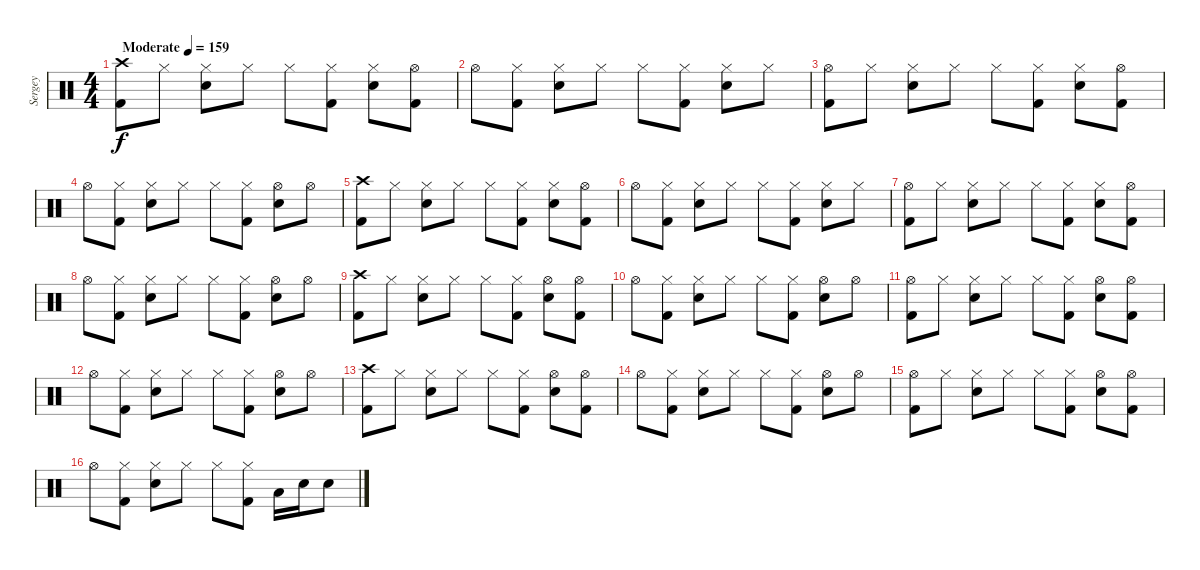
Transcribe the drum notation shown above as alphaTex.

\track ("Sergey" "Sergey") {instrument percussion}
\staff {score}
\articulation defaults
\ts (4 4)
\tempo (159 "Moderate")
\clef neutral
\ks c
("Crash high (hit)" "Kick (hit) 2").8{dy f} "Hi-Hat (closed)".8 ("Hi-Hat (closed)" "Electric Snare (hit)").8 "Hi-Hat (closed)".8 "Hi-Hat (closed)".8 ("Hi-Hat (closed)" "Kick (hit) 2").8 ("Hi-Hat (closed)" "Electric Snare (hit)").8 ("Hi-Hat (open)" "Kick (hit) 2").8 |
"Hi-Hat (open)".8 ("Hi-Hat (closed)" "Kick (hit) 2").8 ("Hi-Hat (closed)" "Electric Snare (hit)").8 "Hi-Hat (closed)".8 "Hi-Hat (closed)".8 ("Hi-Hat (closed)" "Kick (hit) 2").8 ("Hi-Hat (closed)" "Electric Snare (hit)").8 "Hi-Hat (closed)".8 |
("Hi-Hat (open)" "Kick (hit) 2").8 "Hi-Hat (closed)".8 ("Hi-Hat (closed)" "Electric Snare (hit)").8 "Hi-Hat (closed)".8 "Hi-Hat (closed)".8 ("Hi-Hat (closed)" "Kick (hit) 2").8 ("Hi-Hat (closed)" "Electric Snare (hit)").8 ("Hi-Hat (open)" "Kick (hit) 2").8 |
"Hi-Hat (open)".8 ("Hi-Hat (closed)" "Kick (hit) 2").8 ("Hi-Hat (closed)" "Electric Snare (hit)").8 "Hi-Hat (closed)".8 "Hi-Hat (closed)".8 ("Hi-Hat (closed)" "Kick (hit) 2").8 ("Hi-Hat (open)" "Electric Snare (hit)").8 "Hi-Hat (open)".8 |
("Crash high (hit)" "Kick (hit) 2").8 "Hi-Hat (closed)".8 ("Hi-Hat (closed)" "Electric Snare (hit)").8 "Hi-Hat (closed)".8 "Hi-Hat (closed)".8 ("Hi-Hat (closed)" "Kick (hit) 2").8 ("Hi-Hat (closed)" "Electric Snare (hit)").8 ("Hi-Hat (open)" "Kick (hit) 2").8 |
"Hi-Hat (open)".8 ("Hi-Hat (closed)" "Kick (hit) 2").8 ("Hi-Hat (closed)" "Electric Snare (hit)").8 "Hi-Hat (closed)".8 "Hi-Hat (closed)".8 ("Hi-Hat (closed)" "Kick (hit) 2").8 ("Hi-Hat (closed)" "Electric Snare (hit)").8 "Hi-Hat (closed)".8 |
("Hi-Hat (open)" "Kick (hit) 2").8 "Hi-Hat (closed)".8 ("Hi-Hat (closed)" "Electric Snare (hit)").8 "Hi-Hat (closed)".8 "Hi-Hat (closed)".8 ("Hi-Hat (closed)" "Kick (hit) 2").8 ("Hi-Hat (closed)" "Electric Snare (hit)").8 ("Hi-Hat (open)" "Kick (hit) 2").8 |
"Hi-Hat (open)".8 ("Hi-Hat (closed)" "Kick (hit) 2").8 ("Hi-Hat (closed)" "Electric Snare (hit)").8 "Hi-Hat (closed)".8 "Hi-Hat (closed)".8 ("Hi-Hat (closed)" "Kick (hit) 2").8 ("Hi-Hat (open)" "Electric Snare (hit)").8 "Hi-Hat (open)".8 |
("Crash high (hit)" "Kick (hit) 2").8 "Hi-Hat (closed)".8 ("Hi-Hat (closed)" "Electric Snare (hit)").8 "Hi-Hat (closed)".8 "Hi-Hat (closed)".8 ("Hi-Hat (closed)" "Kick (hit) 2").8 ("Hi-Hat (open)" "Electric Snare (hit)").8 ("Hi-Hat (open)" "Kick (hit) 2").8 |
"Hi-Hat (open)".8 ("Hi-Hat (closed)" "Kick (hit) 2").8 ("Hi-Hat (closed)" "Electric Snare (hit)").8 "Hi-Hat (closed)".8 "Hi-Hat (closed)".8 ("Hi-Hat (closed)" "Kick (hit) 2").8 ("Hi-Hat (open)" "Electric Snare (hit)").8 "Hi-Hat (open)".8 |
("Hi-Hat (open)" "Kick (hit) 2").8 "Hi-Hat (closed)".8 ("Hi-Hat (closed)" "Electric Snare (hit)").8 "Hi-Hat (closed)".8 "Hi-Hat (closed)".8 ("Hi-Hat (closed)" "Kick (hit) 2").8 ("Hi-Hat (open)" "Electric Snare (hit)").8 ("Hi-Hat (open)" "Kick (hit) 2").8 |
"Hi-Hat (open)".8 ("Hi-Hat (closed)" "Kick (hit) 2").8 ("Hi-Hat (closed)" "Electric Snare (hit)").8 "Hi-Hat (closed)".8 "Hi-Hat (closed)".8 ("Hi-Hat (closed)" "Kick (hit) 2").8 ("Hi-Hat (open)" "Electric Snare (hit)").8 "Hi-Hat (open)".8 |
("Crash high (hit)" "Kick (hit) 2").8 "Hi-Hat (closed)".8 ("Hi-Hat (closed)" "Electric Snare (hit)").8 "Hi-Hat (closed)".8 "Hi-Hat (closed)".8 ("Hi-Hat (closed)" "Kick (hit) 2").8 ("Hi-Hat (open)" "Electric Snare (hit)").8 ("Hi-Hat (open)" "Kick (hit) 2").8 |
"Hi-Hat (open)".8 ("Hi-Hat (closed)" "Kick (hit) 2").8 ("Hi-Hat (closed)" "Electric Snare (hit)").8 "Hi-Hat (closed)".8 "Hi-Hat (closed)".8 ("Hi-Hat (closed)" "Kick (hit) 2").8 ("Hi-Hat (open)" "Electric Snare (hit)").8 "Hi-Hat (open)".8 |
("Hi-Hat (open)" "Kick (hit) 2").8 "Hi-Hat (closed)".8 ("Hi-Hat (closed)" "Electric Snare (hit)").8 "Hi-Hat (closed)".8 "Hi-Hat (closed)".8 ("Hi-Hat (closed)" "Kick (hit) 2").8 ("Hi-Hat (open)" "Electric Snare (hit)").8 ("Hi-Hat (open)" "Kick (hit) 2").8 |
"Hi-Hat (open)".8 ("Hi-Hat (closed)" "Kick (hit) 2").8 ("Hi-Hat (closed)" "Electric Snare (hit)").8 "Hi-Hat (closed)".8 "Hi-Hat (closed)".8 ("Hi-Hat (closed)" "Kick (hit) 2").8 "Low Tom (hit)".16 "Electric Snare (hit)".16 "Electric Snare (hit)".8
